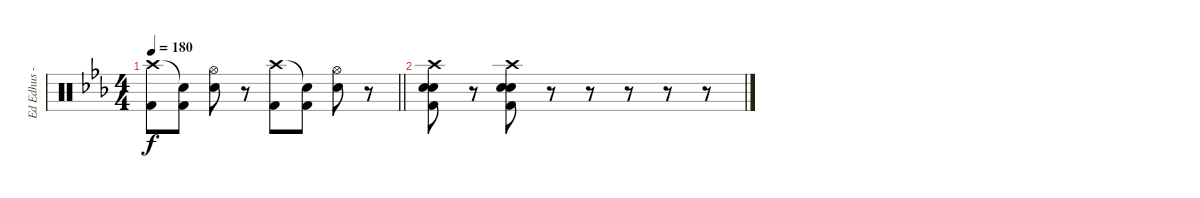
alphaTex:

\track ("Ed Edhus - Drums" "Ed Edhus -") {instrument percussion bank 127}
\staff {score}
\articulation defaults
\ts (4 4)
\tempo 180
\clef neutral
\barLineRight lightlight
\ks eb
("Crash high (hit)" "Kick (hit) 2").8{dy f} ("Snare (hit)"{t} "Kick (hit) 2").8 ("Hi-Hat (open)" "Snare (hit) 2").8 r.8 ("Crash high (hit)" "Kick (hit) 2").8 ("Snare (hit)"{t} "Kick (hit) 2").8 ("Hi-Hat (open)" "Snare (hit) 2").8 r.8 |
("Crash high (hit)" "Snare (hit) 2" "Snare (hit) 2" "Kick (hit) 2").8 r.8 ("Crash high (hit)" "Snare (hit) 2" "Snare (hit) 2" "Kick (hit) 2").8 r.8 r.8 r.8 r.8 r.8
